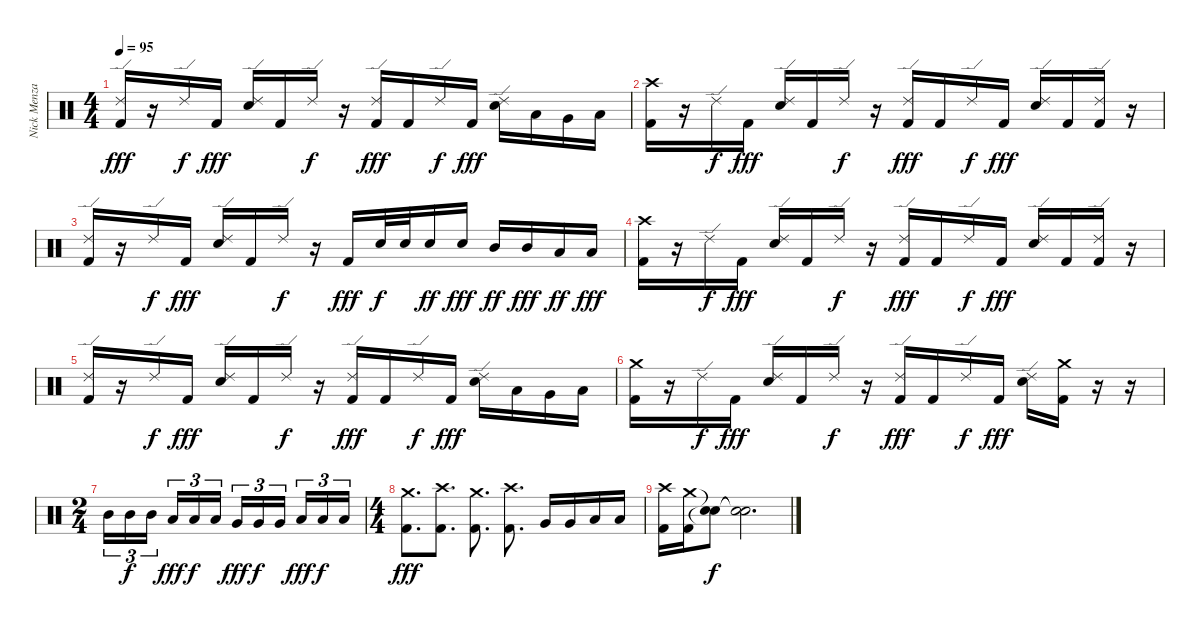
\track ("Nick Menza" "Nick Menza") {instrument percussion}
\staff {score}
\articulation defaults
\ts (4 4)
\tempo 95
\clef neutral
\ks c
("Kick (hit) 2" "Ride (edge) 2").16{dy fff} r.16 "Ride (edge) 2".16{dy f} "Kick (hit) 2".16{dy fff} ("Electric Snare (hit)" "Ride (edge) 2").16 "Kick (hit) 2".16 "Ride (edge) 2".16{dy f} r.16 ("Kick (hit) 2" "Ride (edge) 2").16{dy fff} "Kick (hit) 2".16 "Ride (edge) 2".16{dy f} "Kick (hit) 2".16{dy fff} ("Electric Snare (hit)" "Ride (edge) 2").16 "Low Tom (hit)".16 "Very Low Tom (hit)".16 "Low Floor Tom (hit)".16 |
("Kick (hit) 2" "Crash high (hit)").16 r.16 "Ride (edge) 2".16{dy f} "Kick (hit) 2".16{dy fff} ("Electric Snare (hit)" "Ride (edge) 2").16 "Kick (hit) 2".16 "Ride (edge) 2".16{dy f} r.16 ("Kick (hit) 2" "Ride (edge) 2").16{dy fff} "Kick (hit) 2".16 "Ride (edge) 2".16{dy f} "Kick (hit) 2".16{dy fff} ("Electric Snare (hit)" "Ride (edge) 2").16 "Kick (hit) 2".16 ("Kick (hit) 2" "Ride (edge) 2").16 r.16 |
("Kick (hit) 2" "Ride (edge) 2").16 r.16 "Ride (edge) 2".16{dy f} "Kick (hit) 2".16{dy fff} ("Electric Snare (hit)" "Ride (edge) 2").16 "Kick (hit) 2".16 "Ride (edge) 2".16{dy f} r.16 "Kick (hit) 2".16{dy fff} "Electric Snare (hit)".32{dy f} "Electric Snare (hit)".32 "Electric Snare (hit)".16{dy ff} "Electric Snare (hit)".16{dy fff} "Mid Tom (hit)".16{dy ff} "Mid Tom (hit)".16{dy fff} "Low Tom (hit)".16{dy ff} "Low Tom (hit)".16{dy fff} |
("Kick (hit) 2" "Crash high (hit)").16 r.16 "Ride (edge) 2".16{dy f} "Kick (hit) 2".16{dy fff} ("Electric Snare (hit)" "Ride (edge) 2").16 "Kick (hit) 2".16 "Ride (edge) 2".16{dy f} r.16 ("Kick (hit) 2" "Ride (edge) 2").16{dy fff} "Kick (hit) 2".16 "Ride (edge) 2".16{dy f} "Kick (hit) 2".16{dy fff} ("Electric Snare (hit)" "Ride (edge) 2").16 "Kick (hit) 2".16 ("Kick (hit) 2" "Ride (edge) 2").16 r.16 |
("Kick (hit) 2" "Ride (edge) 2").16 r.16 "Ride (edge) 2".16{dy f} "Kick (hit) 2".16{dy fff} ("Electric Snare (hit)" "Ride (edge) 2").16 "Kick (hit) 2".16 "Ride (edge) 2".16{dy f} r.16 ("Kick (hit) 2" "Ride (edge) 2").16{dy fff} "Kick (hit) 2".16 "Ride (edge) 2".16{dy f} "Kick (hit) 2".16{dy fff} ("Electric Snare (hit)" "Ride (edge) 2").16 "Low Tom (hit)".16 "Very Low Tom (hit)".16 "Low Floor Tom (hit)".16 |
("Kick (hit) 2" "Crash medium (hit)").16 r.16 "Ride (edge) 2".16{dy f} "Kick (hit) 2".16{dy fff} ("Electric Snare (hit)" "Ride (edge) 2").16 "Kick (hit) 2".16 "Ride (edge) 2".16{dy f} r.16 ("Kick (hit) 2" "Ride (edge) 2").16{dy fff} "Kick (hit) 2".16 "Ride (edge) 2".16{dy f} "Kick (hit) 2".16{dy fff} ("Electric Snare (hit)" "Ride (edge) 2").16 ("Kick (hit) 2" "Crash medium (hit)").16 r.16 r.16 |
\ts (2 4)
"Mid Tom (hit)".16{tu (3 2)} "Mid Tom (hit)".16{tu (3 2) dy f} "Mid Tom (hit)".16{tu (3 2)} "Low Tom (hit)".16{tu (3 2) dy fff} "Low Tom (hit)".16{tu (3 2) dy f} "Low Tom (hit)".16{tu (3 2)} "Very Low Tom (hit)".16{tu (3 2) dy fff} "Very Low Tom (hit)".16{tu (3 2) dy f} "Very Low Tom (hit)".16{tu (3 2)} "Low Floor Tom (hit)".16{tu (3 2) dy fff} "Low Floor Tom (hit)".16{tu (3 2) dy f} "Low Floor Tom (hit)".16{tu (3 2)} |
\ts (4 4)
("Kick (hit) 2" "Crash medium (hit)").8{d dy fff} ("Kick (hit) 2" "Crash high (hit)").8{d} ("Kick (hit) 2" "Crash medium (hit)").8{d} ("Kick (hit) 2" "Crash high (hit)").8{d} "Very Low Tom (hit)".16 "Very Low Tom (hit)".16 "Low Floor Tom (hit)".16 "Low Floor Tom (hit)".16 |
("Crash high (hit)" "Kick (hit) 2").16 ("Crash medium (hit)" "Kick (hit) 2").16 ("Snare (hit)"{t} "Snare (hit)"{t}).8{dy f} ("Snare (hit)"{t} "Snare (hit)"{t}).2{d}
